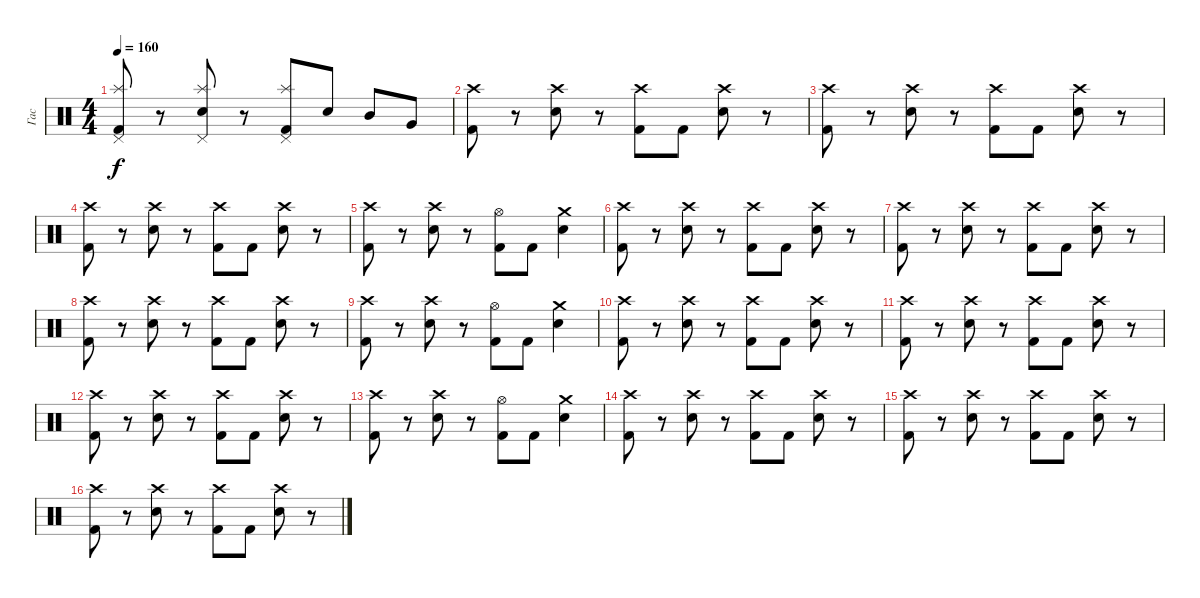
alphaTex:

\track ("Гас" "Гас") {instrument percussion}
\staff {score}
\articulation defaults
\ts (4 4)
\tempo 160
\clef neutral
\ks c
("Pedal Hi-Hat (hit)" "Splash (hit)" "Kick (hit) 2").8{dy f} r.8 ("Pedal Hi-Hat (hit)" "Splash (hit)" "Electric Snare (hit)").8 r.8 ("Pedal Hi-Hat (hit)" "Splash (hit)" "Kick (hit) 2").8 "Electric Snare (hit)".8 "Mid Tom (hit)".8 "Very Low Tom (hit)".8 |
("Crash high (hit)" "Kick (hit) 2").8 r.8 ("Crash high (hit)" "Electric Snare (hit)").8 r.8 ("Crash high (hit)" "Kick (hit) 2").8 "Kick (hit) 2".8 ("Crash high (hit)" "Electric Snare (hit)").8 r.8 |
("Crash high (hit)" "Kick (hit) 2").8 r.8 ("Crash high (hit)" "Electric Snare (hit)").8 r.8 ("Crash high (hit)" "Kick (hit) 2").8 "Kick (hit) 2".8 ("Crash high (hit)" "Electric Snare (hit)").8 r.8 |
("Crash high (hit)" "Kick (hit) 2").8 r.8 ("Crash high (hit)" "Electric Snare (hit)").8 r.8 ("Crash high (hit)" "Kick (hit) 2").8 "Kick (hit) 2".8 ("Crash high (hit)" "Electric Snare (hit)").8 r.8 |
("Crash high (hit)" "Kick (hit) 2").8 r.8 ("Crash high (hit)" "Electric Snare (hit)").8 r.8 ("Hi-Hat (open)" "Kick (hit) 2").8 "Kick (hit) 2".8 ("Crash medium (hit)" "Electric Snare (hit)").4 |
("Crash high (hit)" "Kick (hit) 2").8 r.8 ("Crash high (hit)" "Electric Snare (hit)").8 r.8 ("Crash high (hit)" "Kick (hit) 2").8 "Kick (hit) 2".8 ("Crash high (hit)" "Electric Snare (hit)").8 r.8 |
("Crash high (hit)" "Kick (hit) 2").8 r.8 ("Crash high (hit)" "Electric Snare (hit)").8 r.8 ("Crash high (hit)" "Kick (hit) 2").8 "Kick (hit) 2".8 ("Crash high (hit)" "Electric Snare (hit)").8 r.8 |
("Crash high (hit)" "Kick (hit) 2").8 r.8 ("Crash high (hit)" "Electric Snare (hit)").8 r.8 ("Crash high (hit)" "Kick (hit) 2").8 "Kick (hit) 2".8 ("Crash high (hit)" "Electric Snare (hit)").8 r.8 |
("Crash high (hit)" "Kick (hit) 2").8 r.8 ("Crash high (hit)" "Electric Snare (hit)").8 r.8 ("Hi-Hat (open)" "Kick (hit) 2").8 "Kick (hit) 2".8 ("Crash medium (hit)" "Electric Snare (hit)").4 |
("Crash high (hit)" "Kick (hit) 2").8 r.8 ("Crash high (hit)" "Electric Snare (hit)").8 r.8 ("Crash high (hit)" "Kick (hit) 2").8 "Kick (hit) 2".8 ("Crash high (hit)" "Electric Snare (hit)").8 r.8 |
("Crash high (hit)" "Kick (hit) 2").8 r.8 ("Crash high (hit)" "Electric Snare (hit)").8 r.8 ("Crash high (hit)" "Kick (hit) 2").8 "Kick (hit) 2".8 ("Crash high (hit)" "Electric Snare (hit)").8 r.8 |
("Crash high (hit)" "Kick (hit) 2").8 r.8 ("Crash high (hit)" "Electric Snare (hit)").8 r.8 ("Crash high (hit)" "Kick (hit) 2").8 "Kick (hit) 2".8 ("Crash high (hit)" "Electric Snare (hit)").8 r.8 |
("Crash high (hit)" "Kick (hit) 2").8 r.8 ("Crash high (hit)" "Electric Snare (hit)").8 r.8 ("Hi-Hat (open)" "Kick (hit) 2").8 "Kick (hit) 2".8 ("Crash medium (hit)" "Electric Snare (hit)").4 |
("Crash high (hit)" "Kick (hit) 2").8 r.8 ("Crash high (hit)" "Electric Snare (hit)").8 r.8 ("Crash high (hit)" "Kick (hit) 2").8 "Kick (hit) 2".8 ("Crash high (hit)" "Electric Snare (hit)").8 r.8 |
("Crash high (hit)" "Kick (hit) 2").8 r.8 ("Crash high (hit)" "Electric Snare (hit)").8 r.8 ("Crash high (hit)" "Kick (hit) 2").8 "Kick (hit) 2".8 ("Crash high (hit)" "Electric Snare (hit)").8 r.8 |
("Crash high (hit)" "Kick (hit) 2").8 r.8 ("Crash high (hit)" "Electric Snare (hit)").8 r.8 ("Crash high (hit)" "Kick (hit) 2").8 "Kick (hit) 2".8 ("Crash high (hit)" "Electric Snare (hit)").8 r.8
